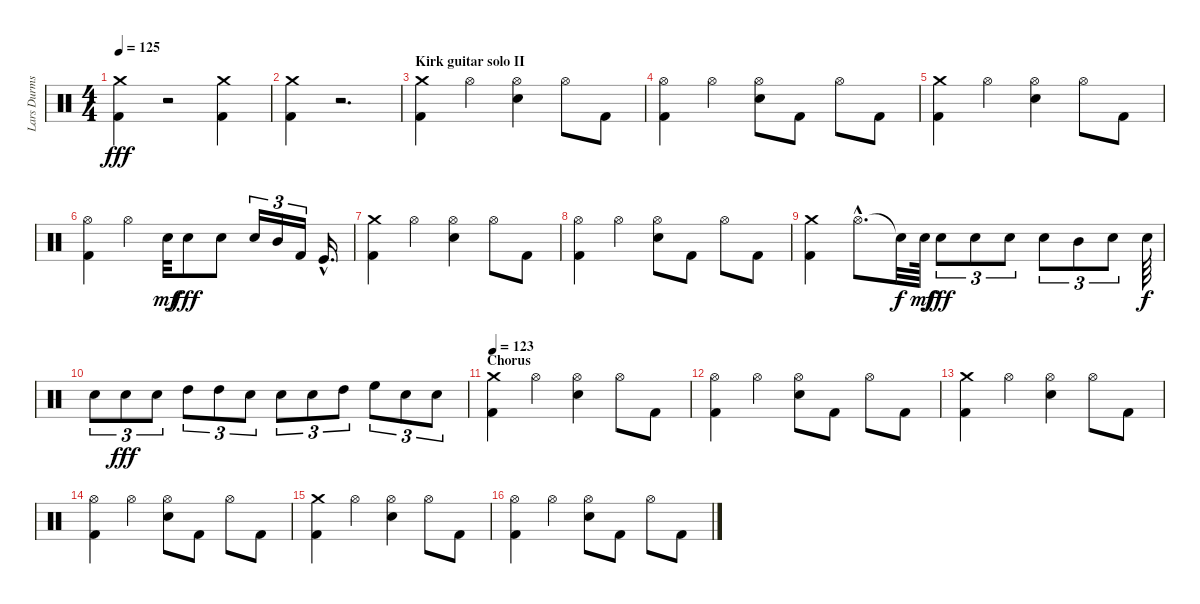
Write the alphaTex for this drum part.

\track ("Lars Durms" "Lars Durms") {instrument percussion}
\staff {score}
\articulation defaults
\ts (4 4)
\tempo 125
\clef neutral
\ks c
("Kick (hit) 2" "Crash medium (hit)").4{dy fff} r.2 ("Crash medium (hit)" "Kick (hit) 2").4 |
("Kick (hit) 2" "Crash medium (hit)").4 r.2{d} |
\section ("" "Kirk guitar solo II")
("Kick (hit) 2" "Crash medium (hit)").4 "Hi-Hat (open)".4 ("Snare (hit) 2" "Hi-Hat (open)").4 "Hi-Hat (open)".8 "Kick (hit) 2".8 |
("Kick (hit) 2" "Hi-Hat (open)").4 "Hi-Hat (open)".4 ("Snare (hit) 2" "Hi-Hat (open)").8 "Kick (hit) 2".8 "Hi-Hat (open)".8 "Kick (hit) 2".8 |
("Kick (hit) 2" "Crash medium (hit)").4 "Hi-Hat (open)".4 ("Snare (hit) 2" "Hi-Hat (open)").4 "Hi-Hat (open)".8 "Kick (hit) 2".8 |
("Hi-Hat (open)" "Kick (hit) 2").4 "Hi-Hat (open)".4 "Snare (hit) 2".32{dy mf} "Snare (hit) 2".8{dy fff} "Snare (hit) 2".8 "Snare (hit) 2".16{tu (3 2)} "Mid Tom (hit)".16{tu (3 2)} "Kick (hit) 2".16{tu (3 2)} "Kick (hit)"{hac}.16{d} |
("Kick (hit) 2" "Crash medium (hit)").4 "Hi-Hat (open)".4 ("Snare (hit) 2" "Hi-Hat (open)").4 "Hi-Hat (open)".8 "Kick (hit) 2".8 |
("Kick (hit) 2" "Hi-Hat (open)").4 "Hi-Hat (open)".4 ("Snare (hit) 2" "Hi-Hat (open)").8 "Kick (hit) 2".8 "Hi-Hat (open)".8 "Kick (hit) 2".8 |
("Kick (hit) 2" "Crash medium (hit)").4 "Hi-Hat (open)"{hac}.8{d} "Snare (hit)"{t}.32{dy f} "Snare (hit) 2".64{dy mf} "Snare (hit) 2".8{tu (3 2) dy fff} "Snare (hit) 2".8{tu (3 2)} "Snare (hit) 2".8{tu (3 2)} "Snare (hit) 2".8{tu (3 2)} "Mid Tom (hit)".8{tu (3 2)} "Snare (hit) 2".8{tu (3 2)} "Snare (hit) 2".64{dy f} |
"Snare (hit) 2".8{tu (3 2)} "Snare (hit) 2".8{tu (3 2) dy fff} "Snare (hit) 2".8{tu (3 2)} "High Tom (hit)".8{tu (3 2)} "High Tom (hit)".8{tu (3 2)} "Snare (hit) 2".8{tu (3 2)} "Snare (hit) 2".8{tu (3 2)} "Snare (hit) 2".8{tu (3 2)} "High Tom (hit)".8{tu (3 2)} "High Floor Tom (hit)".8{tu (3 2)} "Snare (hit) 2".8{tu (3 2)} "Snare (hit) 2".8{tu (3 2)} |
\section ("" "Chorus")
\tempo 123
("Kick (hit) 2" "Crash medium (hit)").4 "Hi-Hat (open)".4 ("Snare (hit) 2" "Hi-Hat (open)").4 "Hi-Hat (open)".8 "Kick (hit) 2".8 |
("Hi-Hat (open)" "Kick (hit) 2").4 "Hi-Hat (open)".4 ("Snare (hit) 2" "Hi-Hat (open)").8 "Kick (hit) 2".8 "Hi-Hat (open)".8 "Kick (hit) 2".8 |
("Kick (hit) 2" "Crash medium (hit)").4 "Hi-Hat (open)".4 ("Snare (hit) 2" "Hi-Hat (open)").4 "Hi-Hat (open)".8 "Kick (hit) 2".8 |
("Hi-Hat (open)" "Kick (hit) 2").4 "Hi-Hat (open)".4 ("Snare (hit) 2" "Hi-Hat (open)").8 "Kick (hit) 2".8 "Hi-Hat (open)".8 "Kick (hit) 2".8 |
("Kick (hit) 2" "Crash medium (hit)").4 "Hi-Hat (open)".4 ("Snare (hit) 2" "Hi-Hat (open)").4 "Hi-Hat (open)".8 "Kick (hit) 2".8 |
("Hi-Hat (open)" "Kick (hit) 2").4 "Hi-Hat (open)".4 ("Snare (hit) 2" "Hi-Hat (open)").8 "Kick (hit) 2".8 "Hi-Hat (open)".8 "Kick (hit) 2".8
